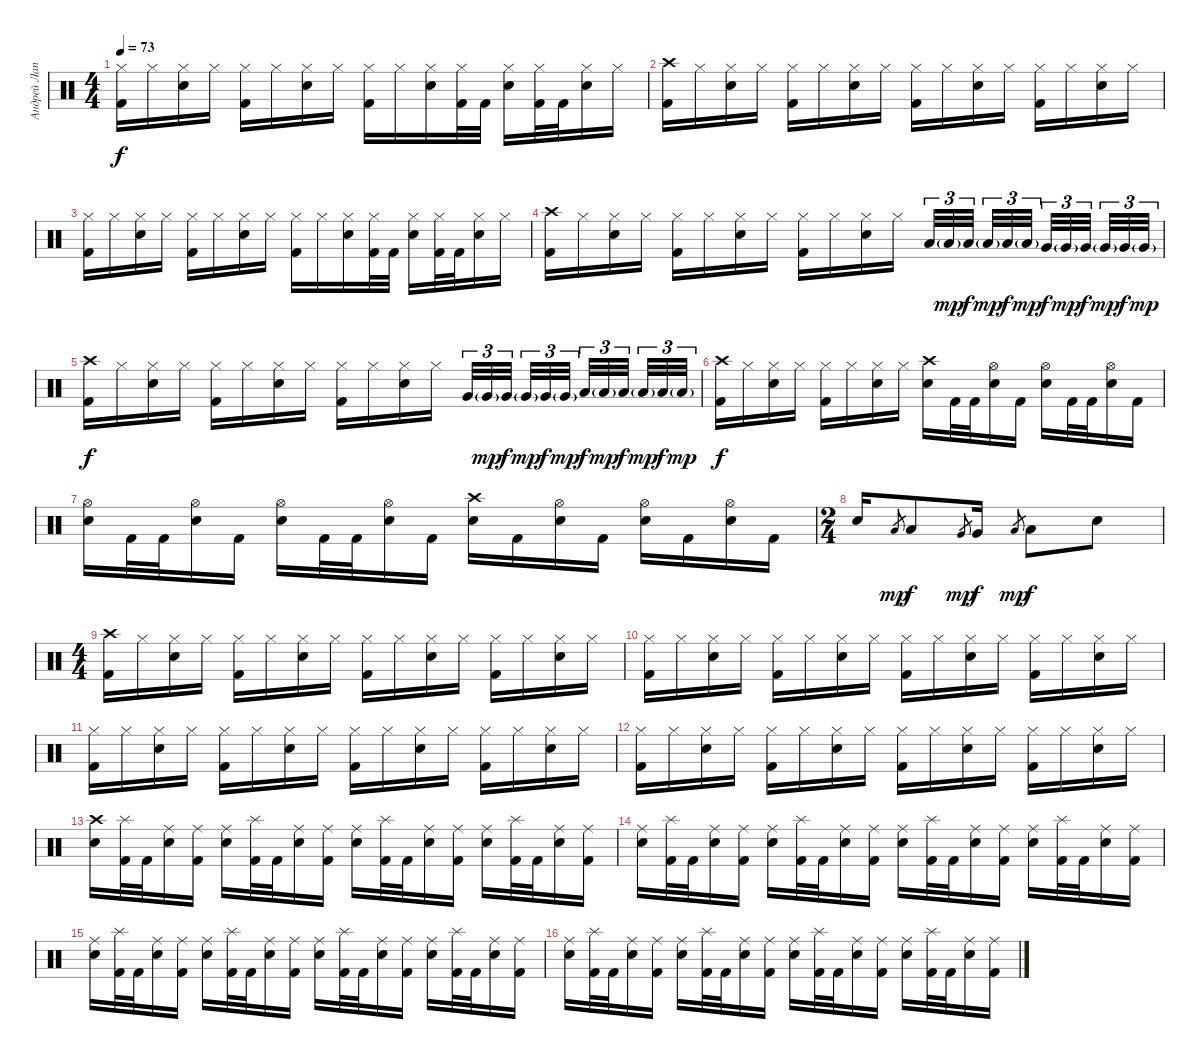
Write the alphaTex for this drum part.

\track ("Андрей Лаптев" "Андрей Лап") {instrument percussion}
\staff {score}
\articulation defaults
\ts (4 4)
\tempo 73
\clef neutral
\ks c
("Hi-Hat (closed)" "Kick (hit) 2").16{dy f} "Hi-Hat (closed)".16 ("Hi-Hat (closed)" "Electric Snare (hit)").16 "Hi-Hat (closed)".16 ("Hi-Hat (closed)" "Kick (hit) 2").16 "Hi-Hat (closed)".16 ("Hi-Hat (closed)" "Electric Snare (hit)").16 "Hi-Hat (closed)".16 ("Hi-Hat (closed)" "Kick (hit) 2").16 "Hi-Hat (closed)".16 ("Hi-Hat (closed)" "Electric Snare (hit)").16 ("Hi-Hat (closed)" "Kick (hit) 2").32 "Kick (hit) 2".32 ("Hi-Hat (closed)" "Electric Snare (hit)").16 ("Hi-Hat (closed)" "Kick (hit) 2").32 "Kick (hit) 2".32 ("Hi-Hat (closed)" "Electric Snare (hit)").16 "Hi-Hat (closed)".16 |
("Crash high (hit)" "Kick (hit) 2").16 "Hi-Hat (closed)".16 ("Hi-Hat (closed)" "Electric Snare (hit)").16 "Hi-Hat (closed)".16 ("Hi-Hat (closed)" "Kick (hit) 2").16 "Hi-Hat (closed)".16 ("Hi-Hat (closed)" "Electric Snare (hit)").16 "Hi-Hat (closed)".16 ("Hi-Hat (closed)" "Kick (hit) 2").16 "Hi-Hat (closed)".16 ("Hi-Hat (closed)" "Electric Snare (hit)").16 "Hi-Hat (closed)".16 ("Hi-Hat (closed)" "Kick (hit) 2").16 "Hi-Hat (closed)".16 ("Hi-Hat (closed)" "Electric Snare (hit)").16 "Hi-Hat (closed)".16 |
("Hi-Hat (closed)" "Kick (hit) 2").16 "Hi-Hat (closed)".16 ("Hi-Hat (closed)" "Electric Snare (hit)").16 "Hi-Hat (closed)".16 ("Hi-Hat (closed)" "Kick (hit) 2").16 "Hi-Hat (closed)".16 ("Hi-Hat (closed)" "Electric Snare (hit)").16 "Hi-Hat (closed)".16 ("Hi-Hat (closed)" "Kick (hit) 2").16 "Hi-Hat (closed)".16 ("Hi-Hat (closed)" "Electric Snare (hit)").16 ("Hi-Hat (closed)" "Kick (hit) 2").32 "Kick (hit) 2".32 ("Hi-Hat (closed)" "Electric Snare (hit)").16 ("Hi-Hat (closed)" "Kick (hit) 2").32 "Kick (hit) 2".32 ("Hi-Hat (closed)" "Electric Snare (hit)").16 "Hi-Hat (closed)".16 |
("Crash high (hit)" "Kick (hit) 2").16 "Hi-Hat (closed)".16 ("Hi-Hat (closed)" "Electric Snare (hit)").16 "Hi-Hat (closed)".16 ("Hi-Hat (closed)" "Kick (hit) 2").16 "Hi-Hat (closed)".16 ("Hi-Hat (closed)" "Electric Snare (hit)").16 "Hi-Hat (closed)".16 ("Hi-Hat (closed)" "Kick (hit) 2").16 "Hi-Hat (closed)".16 ("Hi-Hat (closed)" "Electric Snare (hit)").16 "Hi-Hat (closed)".16 "Low Tom (hit)".32{tu (3 2)} "Low Tom (hit)"{g}.32{tu (3 2) dy mp} "Low Tom (hit)".32{tu (3 2) dy f beam splitsecondary} "Low Tom (hit)"{g}.32{tu (3 2) dy mp} "Low Tom (hit)".32{tu (3 2) dy f} "Low Tom (hit)"{g}.32{tu (3 2) dy mp beam splitsecondary} "Very Low Tom (hit)".32{tu (3 2) dy f} "Very Low Tom (hit)"{g}.32{tu (3 2) dy mp} "Very Low Tom (hit)".32{tu (3 2) dy f beam splitsecondary} "Very Low Tom (hit)"{g}.32{tu (3 2) dy mp} "Very Low Tom (hit)".32{tu (3 2) dy f} "Very Low Tom (hit)"{g}.32{tu (3 2) dy mp} |
("Crash high (hit)" "Kick (hit) 2").16{dy f} "Hi-Hat (closed)".16 ("Hi-Hat (closed)" "Electric Snare (hit)").16 "Hi-Hat (closed)".16 ("Hi-Hat (closed)" "Kick (hit) 2").16 "Hi-Hat (closed)".16 ("Hi-Hat (closed)" "Electric Snare (hit)").16 "Hi-Hat (closed)".16 ("Hi-Hat (closed)" "Kick (hit) 2").16 "Hi-Hat (closed)".16 ("Hi-Hat (closed)" "Electric Snare (hit)").16 "Hi-Hat (closed)".16 "Very Low Tom (hit)".32{tu (3 2)} "Very Low Tom (hit)"{g}.32{tu (3 2) dy mp} "Very Low Tom (hit)".32{tu (3 2) dy f beam splitsecondary} "Very Low Tom (hit)"{g}.32{tu (3 2) dy mp} "Very Low Tom (hit)".32{tu (3 2) dy f} "Very Low Tom (hit)"{g}.32{tu (3 2) dy mp beam splitsecondary} "Low Floor Tom (hit)".32{tu (3 2) dy f} "Low Floor Tom (hit)"{g}.32{tu (3 2) dy mp} "Low Floor Tom (hit)".32{tu (3 2) dy f beam splitsecondary} "Low Floor Tom (hit)"{g}.32{tu (3 2) dy mp} "Low Floor Tom (hit)".32{tu (3 2) dy f} "Low Floor Tom (hit)"{g}.32{tu (3 2) dy mp} |
("Crash high (hit)" "Kick (hit) 2").16{dy f} "Hi-Hat (closed)".16 ("Hi-Hat (closed)" "Electric Snare (hit)").16 "Hi-Hat (closed)".16 ("Hi-Hat (closed)" "Kick (hit) 2").16 "Hi-Hat (closed)".16 ("Hi-Hat (closed)" "Electric Snare (hit)").16 "Hi-Hat (closed)".16 ("Crash high (hit)" "Electric Snare (hit)").16 "Kick (hit) 2".32 "Kick (hit) 2".32 ("Hi-Hat (open)" "Electric Snare (hit)").16 "Kick (hit) 2".16 ("Hi-Hat (open)" "Electric Snare (hit)").16 "Kick (hit) 2".32 "Kick (hit) 2".32 ("Hi-Hat (open)" "Electric Snare (hit)").16 "Kick (hit) 2".16 |
("Hi-Hat (open)" "Electric Snare (hit)").16 "Kick (hit) 2".32 "Kick (hit) 2".32 ("Hi-Hat (open)" "Electric Snare (hit)").16 "Kick (hit) 2".16 ("Hi-Hat (open)" "Electric Snare (hit)").16 "Kick (hit) 2".32 "Kick (hit) 2".32 ("Hi-Hat (open)" "Electric Snare (hit)").16 "Kick (hit) 2".16 ("Crash high (hit)" "Electric Snare (hit)").16 "Kick (hit) 2".16 ("Hi-Hat (open)" "Electric Snare (hit)").16 "Kick (hit) 2".16 ("Hi-Hat (open)" "Electric Snare (hit)").16 "Kick (hit) 2".16 ("Hi-Hat (open)" "Electric Snare (hit)").16 "Kick (hit) 2".16 |
\ts (2 4)
"Electric Snare (hit)".16 "Low Tom (hit)".8{gr dy mp} "Low Tom (hit)".8{dy f} "Very Low Tom (hit)".8{gr dy mp} "Very Low Tom (hit)".16{dy f} "Low Floor Tom (hit)".8{gr dy mp} "Low Floor Tom (hit)".8{dy f} "Electric Snare (hit)".8 |
\ts (4 4)
("Crash high (hit)" "Kick (hit) 2").16 "Hi-Hat (closed)".16 ("Hi-Hat (closed)" "Electric Snare (hit)").16 "Hi-Hat (closed)".16 ("Hi-Hat (closed)" "Kick (hit) 2").16 "Hi-Hat (closed)".16 ("Hi-Hat (closed)" "Electric Snare (hit)").16 "Hi-Hat (closed)".16 ("Hi-Hat (closed)" "Kick (hit) 2").16 "Hi-Hat (closed)".16 ("Hi-Hat (closed)" "Electric Snare (hit)").16 "Hi-Hat (closed)".16 ("Hi-Hat (closed)" "Kick (hit) 2").16 "Hi-Hat (closed)".16 ("Hi-Hat (closed)" "Electric Snare (hit)").16 "Hi-Hat (closed)".16 |
("Hi-Hat (closed)" "Kick (hit) 2").16 "Hi-Hat (closed)".16 ("Hi-Hat (closed)" "Electric Snare (hit)").16 "Hi-Hat (closed)".16 ("Hi-Hat (closed)" "Kick (hit) 2").16 "Hi-Hat (closed)".16 ("Hi-Hat (closed)" "Electric Snare (hit)").16 "Hi-Hat (closed)".16 ("Hi-Hat (closed)" "Kick (hit) 2").16 "Hi-Hat (closed)".16 ("Hi-Hat (closed)" "Electric Snare (hit)").16 "Hi-Hat (closed)".16 ("Hi-Hat (closed)" "Kick (hit) 2").16 "Hi-Hat (closed)".16 ("Hi-Hat (closed)" "Electric Snare (hit)").16 "Hi-Hat (closed)".16 |
("Hi-Hat (closed)" "Kick (hit) 2").16 "Hi-Hat (closed)".16 ("Hi-Hat (closed)" "Electric Snare (hit)").16 "Hi-Hat (closed)".16 ("Hi-Hat (closed)" "Kick (hit) 2").16 "Hi-Hat (closed)".16 ("Hi-Hat (closed)" "Electric Snare (hit)").16 "Hi-Hat (closed)".16 ("Hi-Hat (closed)" "Kick (hit) 2").16 "Hi-Hat (closed)".16 ("Hi-Hat (closed)" "Electric Snare (hit)").16 "Hi-Hat (closed)".16 ("Hi-Hat (closed)" "Kick (hit) 2").16 "Hi-Hat (closed)".16 ("Hi-Hat (closed)" "Electric Snare (hit)").16 "Hi-Hat (closed)".16 |
("Hi-Hat (closed)" "Kick (hit) 2").16 "Hi-Hat (closed)".16 ("Hi-Hat (closed)" "Electric Snare (hit)").16 "Hi-Hat (closed)".16 ("Hi-Hat (closed)" "Kick (hit) 2").16 "Hi-Hat (closed)".16 ("Hi-Hat (closed)" "Electric Snare (hit)").16 "Hi-Hat (closed)".16 ("Hi-Hat (closed)" "Kick (hit) 2").16 "Hi-Hat (closed)".16 ("Hi-Hat (closed)" "Electric Snare (hit)").16 "Hi-Hat (closed)".16 ("Hi-Hat (closed)" "Kick (hit) 2").16 "Hi-Hat (closed)".16 ("Hi-Hat (closed)" "Electric Snare (hit)").16 "Hi-Hat (closed)".16 |
("Crash high (hit)" "Electric Snare (hit)").16 ("Splash (hit)" "Kick (hit) 2").32 "Kick (hit) 2".32 ("Ride (middle)" "Electric Snare (hit)").16 ("Ride (middle)" "Kick (hit) 2").16 ("Ride (middle)" "Electric Snare (hit)").16 ("Splash (hit)" "Kick (hit) 2").32 "Kick (hit) 2".32 ("Ride (middle)" "Electric Snare (hit)").16 ("Ride (middle)" "Kick (hit) 2").16 ("Ride (middle)" "Electric Snare (hit)").16 ("Splash (hit)" "Kick (hit) 2").32 "Kick (hit) 2".32 ("Ride (middle)" "Electric Snare (hit)").16 ("Ride (middle)" "Kick (hit) 2").16 ("Ride (middle)" "Electric Snare (hit)").16 ("Splash (hit)" "Kick (hit) 2").32 "Kick (hit) 2".32 ("Ride (middle)" "Electric Snare (hit)").16 ("Ride (middle)" "Kick (hit) 2").16 |
("Ride (middle)" "Electric Snare (hit)").16 ("Splash (hit)" "Kick (hit) 2").32 "Kick (hit) 2".32 ("Ride (middle)" "Electric Snare (hit)").16 ("Ride (middle)" "Kick (hit) 2").16 ("Ride (middle)" "Electric Snare (hit)").16 ("Splash (hit)" "Kick (hit) 2").32 "Kick (hit) 2".32 ("Ride (middle)" "Electric Snare (hit)").16 ("Ride (middle)" "Kick (hit) 2").16 ("Ride (middle)" "Electric Snare (hit)").16 ("Splash (hit)" "Kick (hit) 2").32 "Kick (hit) 2".32 ("Ride (middle)" "Electric Snare (hit)").16 ("Ride (middle)" "Kick (hit) 2").16 ("Ride (middle)" "Electric Snare (hit)").16 ("Splash (hit)" "Kick (hit) 2").32 "Kick (hit) 2".32 ("Ride (middle)" "Electric Snare (hit)").16 ("Ride (middle)" "Kick (hit) 2").16 |
("Ride (middle)" "Electric Snare (hit)").16 ("Splash (hit)" "Kick (hit) 2").32 "Kick (hit) 2".32 ("Ride (middle)" "Electric Snare (hit)").16 ("Ride (middle)" "Kick (hit) 2").16 ("Ride (middle)" "Electric Snare (hit)").16 ("Splash (hit)" "Kick (hit) 2").32 "Kick (hit) 2".32 ("Ride (middle)" "Electric Snare (hit)").16 ("Ride (middle)" "Kick (hit) 2").16 ("Ride (middle)" "Electric Snare (hit)").16 ("Splash (hit)" "Kick (hit) 2").32 "Kick (hit) 2".32 ("Ride (middle)" "Electric Snare (hit)").16 ("Ride (middle)" "Kick (hit) 2").16 ("Ride (middle)" "Electric Snare (hit)").16 ("Splash (hit)" "Kick (hit) 2").32 "Kick (hit) 2".32 ("Ride (middle)" "Electric Snare (hit)").16 ("Ride (middle)" "Kick (hit) 2").16 |
("Ride (middle)" "Electric Snare (hit)").16 ("Splash (hit)" "Kick (hit) 2").32 "Kick (hit) 2".32 ("Ride (middle)" "Electric Snare (hit)").16 ("Ride (middle)" "Kick (hit) 2").16 ("Ride (middle)" "Electric Snare (hit)").16 ("Splash (hit)" "Kick (hit) 2").32 "Kick (hit) 2".32 ("Ride (middle)" "Electric Snare (hit)").16 ("Ride (middle)" "Kick (hit) 2").16 ("Ride (middle)" "Electric Snare (hit)").16 ("Splash (hit)" "Kick (hit) 2").32 "Kick (hit) 2".32 ("Ride (middle)" "Electric Snare (hit)").16 ("Ride (middle)" "Kick (hit) 2").16 ("Ride (middle)" "Electric Snare (hit)").16 ("Splash (hit)" "Kick (hit) 2").32 "Kick (hit) 2".32 ("Ride (middle)" "Electric Snare (hit)").16 ("Ride (middle)" "Kick (hit) 2").16
